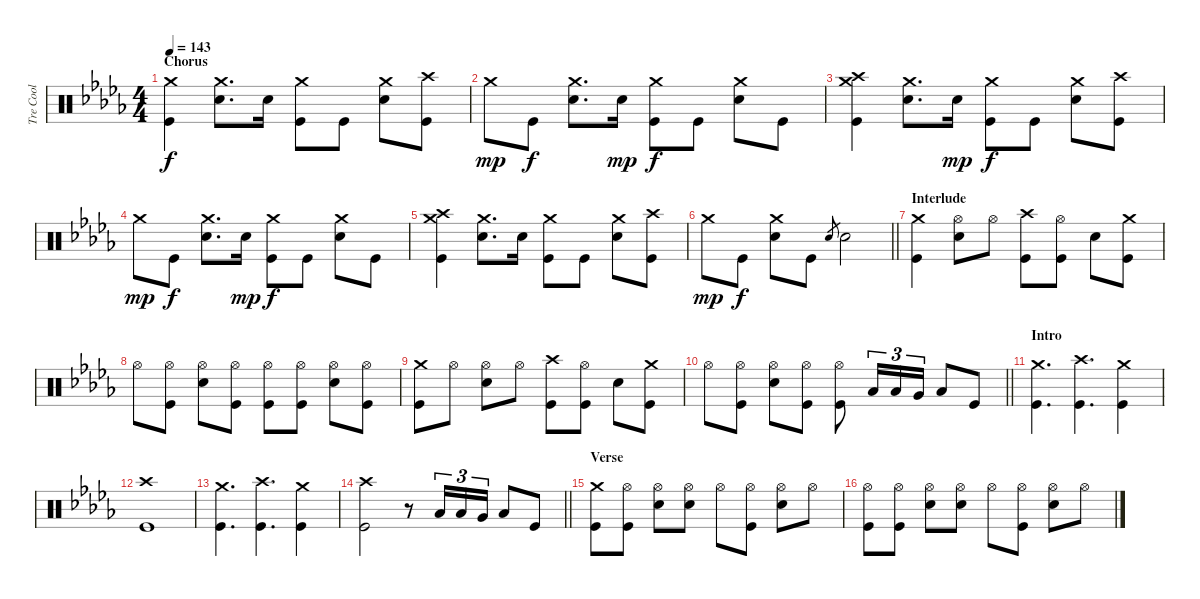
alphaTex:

\track ("Tre Cool" "Tre Cool") {instrument percussion}
\staff {score}
\articulation defaults
\ts (4 4)
\section ("" "Chorus")
\tempo 143
\clef neutral
\ks db
("Crash medium (hit)" "Kick (hit)").4{dy f} ("Crash medium (hit)" "Electric Snare (hit)").8{d} "Electric Snare (hit)".16 ("Crash medium (hit)" "Kick (hit)").8 "Kick (hit)".8 ("Crash medium (hit)" "Electric Snare (hit)").8 ("Crash high (hit)" "Kick (hit)").8 |
"Crash medium (hit)".8{dy mp} "Kick (hit)".8{dy f} ("Crash medium (hit)" "Electric Snare (hit)").8{d} "Electric Snare (hit)".16{dy mp} ("Crash medium (hit)" "Kick (hit)").8{dy f} "Kick (hit)".8 ("Crash medium (hit)" "Electric Snare (hit)").8 "Kick (hit)".8 |
("Crash medium (hit)" "Crash high (hit)" "Kick (hit)").4 ("Crash medium (hit)" "Electric Snare (hit)").8{d} "Electric Snare (hit)".16{dy mp} ("Crash medium (hit)" "Kick (hit)").8{dy f} "Kick (hit)".8 ("Crash medium (hit)" "Electric Snare (hit)").8 ("Crash high (hit)" "Kick (hit)").8 |
"Crash medium (hit)".8{dy mp} "Kick (hit)".8{dy f} ("Crash medium (hit)" "Electric Snare (hit)").8{d} "Electric Snare (hit)".16{dy mp} ("Crash medium (hit)" "Kick (hit)").8{dy f} "Kick (hit)".8 ("Crash medium (hit)" "Electric Snare (hit)").8 "Kick (hit)".8 |
("Crash medium (hit)" "Crash high (hit)" "Kick (hit)").4 ("Crash medium (hit)" "Electric Snare (hit)").8{d} "Electric Snare (hit)".16 ("Crash medium (hit)" "Kick (hit)").8 "Kick (hit)".8 ("Crash medium (hit)" "Electric Snare (hit)").8 ("Crash high (hit)" "Kick (hit)").8 |
\barLineRight lightlight "Crash medium (hit)".8{dy mp} "Kick (hit)".8{dy f}
("Crash medium (hit)" "Electric Snare (hit)").8 "Kick (hit)".8 "Electric Snare (hit)".8{gr} "Electric Snare (hit)".2 |
\section ("" "Interlude")
("Crash medium (hit)" "Kick (hit)").4 ("Hi-Hat (open)" "Electric Snare (hit)").8 "Hi-Hat (open)".8 ("Crash high (hit)" "Kick (hit)").8 ("Hi-Hat (open)" "Kick (hit)").8 "Electric Snare (hit)".8 ("Crash medium (hit)" "Kick (hit)").8 |
"Hi-Hat (open)".8 ("Hi-Hat (open)" "Kick (hit)").8 ("Hi-Hat (open)" "Electric Snare (hit)").8 ("Hi-Hat (open)" "Kick (hit)").8 ("Hi-Hat (open)" "Kick (hit)").8 ("Hi-Hat (open)" "Kick (hit)").8 ("Hi-Hat (open)" "Electric Snare (hit)").8 ("Hi-Hat (open)" "Kick (hit)").8 |
("Crash medium (hit)" "Kick (hit)").8 "Hi-Hat (open)".8 ("Hi-Hat (open)" "Electric Snare (hit)").8 "Hi-Hat (open)".8 ("Crash high (hit)" "Kick (hit)").8 ("Hi-Hat (open)" "Kick (hit)").8 "Electric Snare (hit)".8 ("Crash medium (hit)" "Kick (hit)").8 |
\barLineRight lightlight "Hi-Hat (open)".8
("Hi-Hat (open)" "Kick (hit)").8 ("Hi-Hat (open)" "Electric Snare (hit)").8 ("Hi-Hat (open)" "Kick (hit)").8 ("Hi-Hat (open)" "Kick (hit)").8 "Low Tom (hit)".16{tu (3 2)} "Low Tom (hit)".16{tu (3 2)} "Very Low Tom (hit)".16{tu (3 2)} "Low Floor Tom (hit)".8 "Kick (hit)".8 |
\section ("" "Intro")
("Crash medium (hit)" "Kick (hit)").4{d} ("Crash high (hit)" "Kick (hit)").4{d} ("Crash medium (hit)" "Kick (hit)").4 |
("Crash high (hit)" "Kick (hit)").1 |
("Crash medium (hit)" "Kick (hit)").4{d} ("Crash high (hit)" "Kick (hit)").4{d} ("Crash medium (hit)" "Kick (hit)").4 |
\barLineRight lightlight
("Crash high (hit)" "Kick (hit)").2 r.8 "Low Tom (hit)".16{tu (3 2)} "Low Tom (hit)".16{tu (3 2)} "Very Low Tom (hit)".16{tu (3 2)} "Low Floor Tom (hit)".8 "Kick (hit)".8 |
\section ("" "Verse")
("Crash medium (hit)" "Kick (hit)").8 ("Hi-Hat (open)" "Kick (hit)").8 ("Hi-Hat (open)" "Electric Snare (hit)").8 ("Hi-Hat (open)" "Electric Snare (hit)").8 "Hi-Hat (open)".8 ("Hi-Hat (open)" "Kick (hit)").8 ("Hi-Hat (open)" "Electric Snare (hit)").8 "Hi-Hat (open)".8 |
("Hi-Hat (open)" "Kick (hit)").8 ("Hi-Hat (open)" "Kick (hit)").8 ("Hi-Hat (open)" "Electric Snare (hit)").8 ("Hi-Hat (open)" "Electric Snare (hit)").8 "Hi-Hat (open)".8 ("Hi-Hat (open)" "Kick (hit)").8 ("Hi-Hat (open)" "Electric Snare (hit)").8 "Hi-Hat (open)".8
